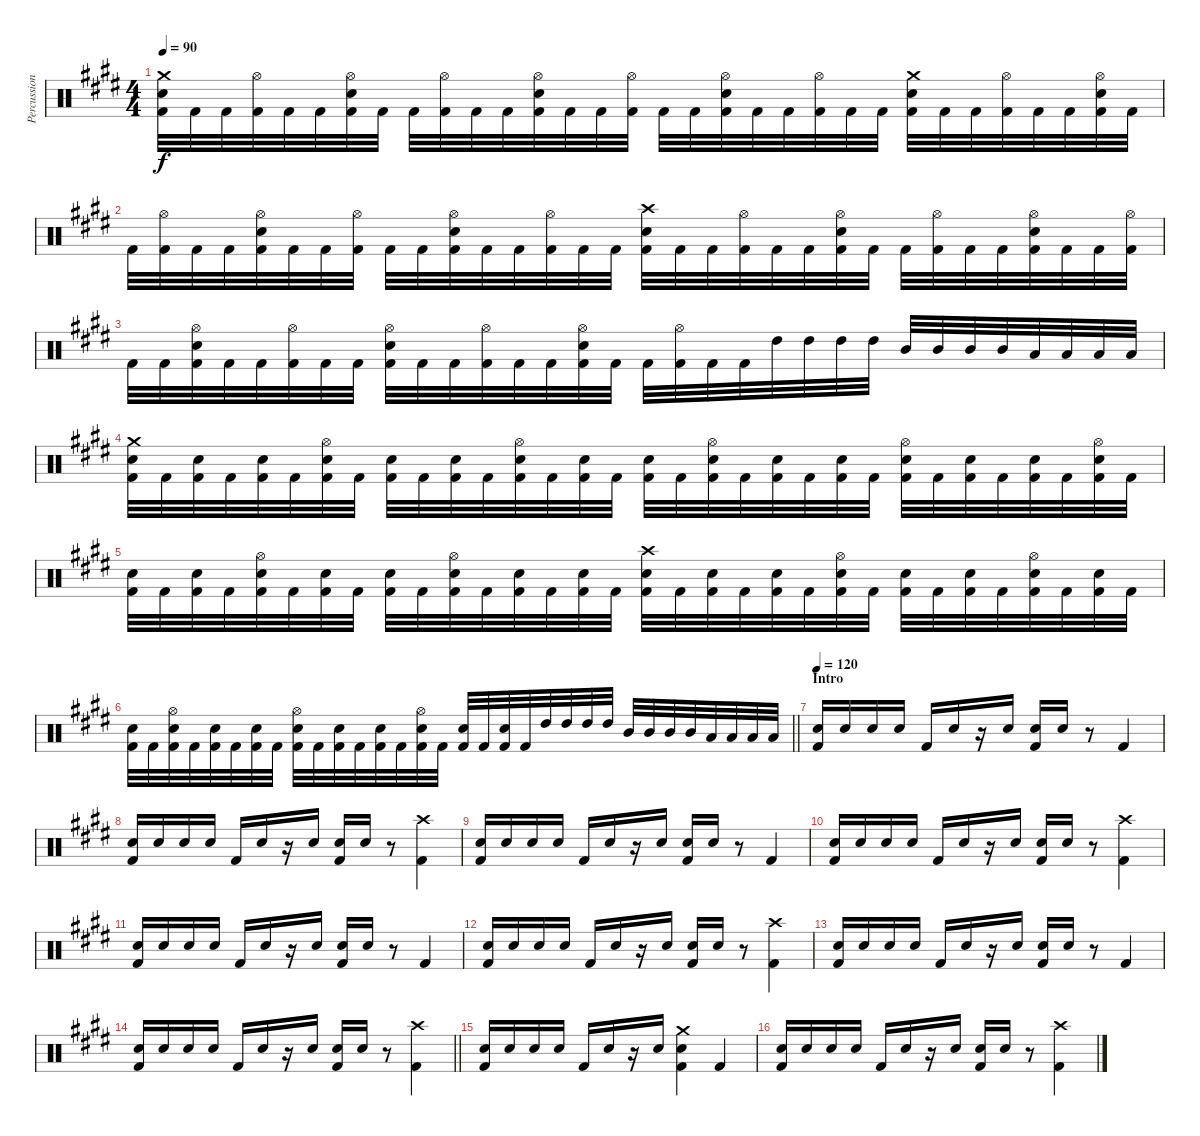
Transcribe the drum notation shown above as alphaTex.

\track ("Percussion" "Percussion") {instrument percussion}
\staff {score}
\articulation defaults
\ts (4 4)
\tempo 90
\clef neutral
\ks c#minor
("Crash medium (hit)" "Snare (hit) 2" "Kick (hit) 2").32{dy f} "Kick (hit) 2".32 "Kick (hit) 2".32 ("Hi-Hat (open)" "Kick (hit) 2").32 "Kick (hit) 2".32 "Kick (hit) 2".32 ("Hi-Hat (open)" "Snare (hit) 2" "Kick (hit) 2").32 "Kick (hit) 2".32 "Kick (hit) 2".32 ("Hi-Hat (open)" "Kick (hit) 2").32 "Kick (hit) 2".32 "Kick (hit) 2".32 ("Hi-Hat (open)" "Snare (hit) 2" "Kick (hit) 2").32 "Kick (hit) 2".32 "Kick (hit) 2".32 ("Hi-Hat (open)" "Kick (hit) 2").32 "Kick (hit) 2".32 "Kick (hit) 2".32 ("Hi-Hat (open)" "Snare (hit) 2" "Kick (hit) 2").32 "Kick (hit) 2".32 "Kick (hit) 2".32 ("Hi-Hat (open)" "Kick (hit) 2").32 "Kick (hit) 2".32 "Kick (hit) 2".32 ("Crash medium (hit)" "Snare (hit) 2" "Kick (hit) 2").32 "Kick (hit) 2".32 "Kick (hit) 2".32 ("Hi-Hat (open)" "Kick (hit) 2").32 "Kick (hit) 2".32 "Kick (hit) 2".32 ("Hi-Hat (open)" "Snare (hit) 2" "Kick (hit) 2").32 "Kick (hit) 2".32 |
"Kick (hit) 2".32 ("Hi-Hat (open)" "Kick (hit) 2").32 "Kick (hit) 2".32 "Kick (hit) 2".32 ("Hi-Hat (open)" "Snare (hit) 2" "Kick (hit) 2").32 "Kick (hit) 2".32 "Kick (hit) 2".32 ("Hi-Hat (open)" "Kick (hit) 2").32 "Kick (hit) 2".32 "Kick (hit) 2".32 ("Hi-Hat (open)" "Snare (hit) 2" "Kick (hit) 2").32 "Kick (hit) 2".32 "Kick (hit) 2".32 ("Hi-Hat (open)" "Kick (hit) 2").32 "Kick (hit) 2".32 "Kick (hit) 2".32 ("Crash high (hit)" "Snare (hit) 2" "Kick (hit) 2").32 "Kick (hit) 2".32 "Kick (hit) 2".32 ("Hi-Hat (open)" "Kick (hit) 2").32 "Kick (hit) 2".32 "Kick (hit) 2".32 ("Hi-Hat (open)" "Snare (hit) 2" "Kick (hit) 2").32 "Kick (hit) 2".32 "Kick (hit) 2".32 ("Hi-Hat (open)" "Kick (hit) 2").32 "Kick (hit) 2".32 "Kick (hit) 2".32 ("Hi-Hat (open)" "Snare (hit) 2" "Kick (hit) 2").32 "Kick (hit) 2".32 "Kick (hit) 2".32 ("Hi-Hat (open)" "Kick (hit) 2").32 |
"Kick (hit) 2".32 "Kick (hit) 2".32 ("Hi-Hat (open)" "Snare (hit) 2" "Kick (hit) 2").32 "Kick (hit) 2".32 "Kick (hit) 2".32 ("Hi-Hat (open)" "Kick (hit) 2").32 "Kick (hit) 2".32 "Kick (hit) 2".32 ("Hi-Hat (open)" "Snare (hit) 2" "Kick (hit) 2").32 "Kick (hit) 2".32 "Kick (hit) 2".32 ("Hi-Hat (open)" "Kick (hit) 2").32 "Kick (hit) 2".32 "Kick (hit) 2".32 ("Hi-Hat (open)" "Snare (hit) 2" "Kick (hit) 2").32 "Kick (hit) 2".32 "Kick (hit) 2".32 ("Hi-Hat (open)" "Kick (hit) 2").32 "Kick (hit) 2".32 "Kick (hit) 2".32 "High Tom (hit)".32 "High Tom (hit)".32 "High Tom (hit)".32 "High Tom (hit)".32 "Mid Tom (hit)".32 "Mid Tom (hit)".32 "Mid Tom (hit)".32 "Mid Tom (hit)".32 "Low Tom (hit)".32 "Low Tom (hit)".32 "Low Tom (hit)".32 "Low Tom (hit)".32 |
("Crash medium (hit)" "Snare (hit) 2" "Kick (hit) 2").32 "Kick (hit) 2".32 ("Snare (hit) 2" "Kick (hit) 2").32 "Kick (hit) 2".32 ("Snare (hit) 2" "Kick (hit) 2").32 "Kick (hit) 2".32 ("Hi-Hat (open)" "Snare (hit) 2" "Kick (hit) 2").32 "Kick (hit) 2".32 ("Snare (hit) 2" "Kick (hit) 2").32 "Kick (hit) 2".32 ("Snare (hit) 2" "Kick (hit) 2").32 "Kick (hit) 2".32 ("Hi-Hat (open)" "Snare (hit) 2" "Kick (hit) 2").32 "Kick (hit) 2".32 ("Snare (hit) 2" "Kick (hit) 2").32 "Kick (hit) 2".32 ("Snare (hit) 2" "Kick (hit) 2").32 "Kick (hit) 2".32 ("Hi-Hat (open)" "Snare (hit) 2" "Kick (hit) 2").32 "Kick (hit) 2".32 ("Snare (hit) 2" "Kick (hit) 2").32 "Kick (hit) 2".32 ("Snare (hit) 2" "Kick (hit) 2").32 "Kick (hit) 2".32 ("Hi-Hat (open)" "Snare (hit) 2" "Kick (hit) 2").32 "Kick (hit) 2".32 ("Snare (hit) 2" "Kick (hit) 2").32 "Kick (hit) 2".32 ("Snare (hit) 2" "Kick (hit) 2").32 "Kick (hit) 2".32 ("Hi-Hat (open)" "Snare (hit) 2" "Kick (hit) 2").32 "Kick (hit) 2".32 |
("Snare (hit) 2" "Kick (hit) 2").32 "Kick (hit) 2".32 ("Snare (hit) 2" "Kick (hit) 2").32 "Kick (hit) 2".32 ("Hi-Hat (open)" "Snare (hit) 2" "Kick (hit) 2").32 "Kick (hit) 2".32 ("Snare (hit) 2" "Kick (hit) 2").32 "Kick (hit) 2".32 ("Snare (hit) 2" "Kick (hit) 2").32 "Kick (hit) 2".32 ("Hi-Hat (open)" "Snare (hit) 2" "Kick (hit) 2").32 "Kick (hit) 2".32 ("Snare (hit) 2" "Kick (hit) 2").32 "Kick (hit) 2".32 ("Snare (hit) 2" "Kick (hit) 2").32 "Kick (hit) 2".32 ("Crash high (hit)" "Snare (hit) 2" "Kick (hit) 2").32 "Kick (hit) 2".32 ("Snare (hit) 2" "Kick (hit) 2").32 "Kick (hit) 2".32 ("Snare (hit) 2" "Kick (hit) 2").32 "Kick (hit) 2".32 ("Hi-Hat (open)" "Snare (hit) 2" "Kick (hit) 2").32 "Kick (hit) 2".32 ("Snare (hit) 2" "Kick (hit) 2").32 "Kick (hit) 2".32 ("Snare (hit) 2" "Kick (hit) 2").32 "Kick (hit) 2".32 ("Hi-Hat (open)" "Snare (hit) 2" "Kick (hit) 2").32 "Kick (hit) 2".32 ("Snare (hit) 2" "Kick (hit) 2").32 "Kick (hit) 2".32 |
\barLineRight lightlight
("Snare (hit) 2" "Kick (hit) 2").32 "Kick (hit) 2".32 ("Hi-Hat (open)" "Snare (hit) 2" "Kick (hit) 2").32 "Kick (hit) 2".32 ("Snare (hit) 2" "Kick (hit) 2").32 "Kick (hit) 2".32 ("Snare (hit) 2" "Kick (hit) 2").32 "Kick (hit) 2".32 ("Hi-Hat (open)" "Snare (hit) 2" "Kick (hit) 2").32 "Kick (hit) 2".32 ("Snare (hit) 2" "Kick (hit) 2").32 "Kick (hit) 2".32 ("Snare (hit) 2" "Kick (hit) 2").32 "Kick (hit) 2".32 ("Hi-Hat (open)" "Snare (hit) 2" "Kick (hit) 2").32 "Kick (hit) 2".32 ("Snare (hit) 2" "Kick (hit) 2").32 "Kick (hit) 2".32 ("Snare (hit) 2" "Kick (hit) 2").32 "Kick (hit) 2".32 "High Tom (hit)".32 "High Tom (hit)".32 "High Tom (hit)".32 "High Tom (hit)".32 "Mid Tom (hit)".32 "Mid Tom (hit)".32 "Mid Tom (hit)".32 "Mid Tom (hit)".32 "Low Tom (hit)".32 "Low Tom (hit)".32 "Low Tom (hit)".32 "Low Tom (hit)".32 |
\section ("" "Intro")
\tempo 120
("Snare (hit) 2" "Kick (hit) 2").16 "Snare (hit) 2".16 "Snare (hit) 2".16 "Snare (hit) 2".16 "Kick (hit) 2".16 "Snare (hit) 2".16 r.16 "Snare (hit) 2".16 ("Snare (hit) 2" "Kick (hit) 2").16 "Snare (hit) 2".16 r.8 "Kick (hit) 2".4 |
("Snare (hit) 2" "Kick (hit) 2").16 "Snare (hit) 2".16 "Snare (hit) 2".16 "Snare (hit) 2".16 "Kick (hit) 2".16 "Snare (hit) 2".16 r.16 "Snare (hit) 2".16 ("Snare (hit) 2" "Kick (hit) 2").16 "Snare (hit) 2".16 r.8 ("Crash high (hit)" "Kick (hit) 2").4 |
("Snare (hit) 2" "Kick (hit) 2").16 "Snare (hit) 2".16 "Snare (hit) 2".16 "Snare (hit) 2".16 "Kick (hit) 2".16 "Snare (hit) 2".16 r.16 "Snare (hit) 2".16 ("Snare (hit) 2" "Kick (hit) 2").16 "Snare (hit) 2".16 r.8 "Kick (hit) 2".4 |
("Snare (hit) 2" "Kick (hit) 2").16 "Snare (hit) 2".16 "Snare (hit) 2".16 "Snare (hit) 2".16 "Kick (hit) 2".16 "Snare (hit) 2".16 r.16 "Snare (hit) 2".16 ("Snare (hit) 2" "Kick (hit) 2").16 "Snare (hit) 2".16 r.8 ("Crash high (hit)" "Kick (hit) 2").4 |
("Snare (hit) 2" "Kick (hit) 2").16 "Snare (hit) 2".16 "Snare (hit) 2".16 "Snare (hit) 2".16 "Kick (hit) 2".16 "Snare (hit) 2".16 r.16 "Snare (hit) 2".16 ("Snare (hit) 2" "Kick (hit) 2").16 "Snare (hit) 2".16 r.8 "Kick (hit) 2".4 |
("Snare (hit) 2" "Kick (hit) 2").16 "Snare (hit) 2".16 "Snare (hit) 2".16 "Snare (hit) 2".16 "Kick (hit) 2".16 "Snare (hit) 2".16 r.16 "Snare (hit) 2".16 ("Snare (hit) 2" "Kick (hit) 2").16 "Snare (hit) 2".16 r.8 ("Crash high (hit)" "Kick (hit) 2").4 |
("Snare (hit) 2" "Kick (hit) 2").16 "Snare (hit) 2".16 "Snare (hit) 2".16 "Snare (hit) 2".16 "Kick (hit) 2".16 "Snare (hit) 2".16 r.16 "Snare (hit) 2".16 ("Snare (hit) 2" "Kick (hit) 2").16 "Snare (hit) 2".16 r.8 "Kick (hit) 2".4 |
\barLineRight lightlight
("Snare (hit) 2" "Kick (hit) 2").16 "Snare (hit) 2".16 "Snare (hit) 2".16 "Snare (hit) 2".16 "Kick (hit) 2".16 "Snare (hit) 2".16 r.16 "Snare (hit) 2".16 ("Snare (hit) 2" "Kick (hit) 2").16 "Snare (hit) 2".16 r.8 ("Crash high (hit)" "Kick (hit) 2").4 |
("Snare (hit) 2" "Kick (hit) 2").16 "Snare (hit) 2".16 "Snare (hit) 2".16 "Snare (hit) 2".16 "Kick (hit) 2".16 "Snare (hit) 2".16 r.16 "Snare (hit) 2".16 ("Crash medium (hit)" "Snare (hit) 2" "Kick (hit) 2").4 "Kick (hit) 2".4 |
("Snare (hit) 2" "Kick (hit) 2").16 "Snare (hit) 2".16 "Snare (hit) 2".16 "Snare (hit) 2".16 "Kick (hit) 2".16 "Snare (hit) 2".16 r.16 "Snare (hit) 2".16 ("Snare (hit) 2" "Kick (hit) 2").16 "Snare (hit) 2".16 r.8 ("Crash high (hit)" "Kick (hit) 2").4
